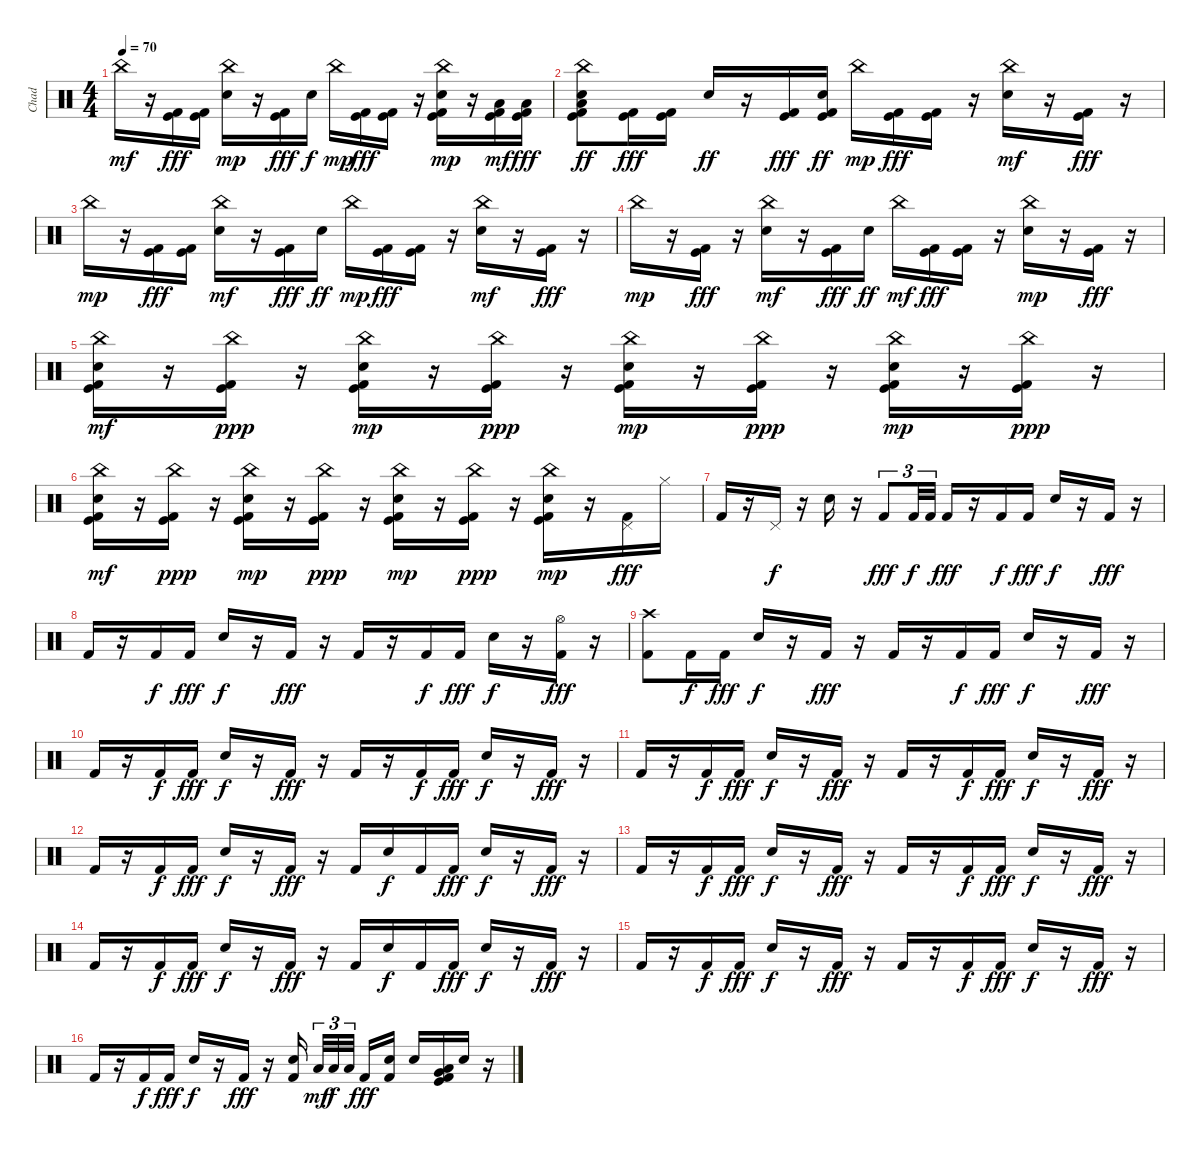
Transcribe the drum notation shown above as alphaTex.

\track ("Chad" "Chad") {instrument percussion}
\staff {score}
\articulation defaults
\ts (4 4)
\tempo 70
\clef neutral
\ks c "China (hit)".16{dy mf}
r.16 ("Kick (hit)" "Kick (hit) 2").16{dy fff} ("Kick (hit)" "Kick (hit) 2").16 ("Snare (hit) 2" "China (hit)").16{dy mp} r.16 ("Kick (hit)" "Kick (hit) 2").16{dy fff} "Snare (hit) 2".16{dy f} "China (hit)".16{dy mp} ("Kick (hit)" "Kick (hit) 2").16{dy fff} ("Kick (hit)" "Kick (hit) 2").16 r.16 ("Kick (hit)" "Kick (hit) 2" "Snare (hit) 2" "China (hit)").16{dy mp} r.16 ("Kick (hit)" "Kick (hit) 2" "Low Floor Tom (hit)").16{dy mf} ("Kick (hit)" "Kick (hit) 2" "Low Floor Tom (hit)").16{dy fff} |
("Kick (hit)" "Kick (hit) 2" "Snare (hit) 2" "Low Floor Tom (hit)" "China (hit)").8{dy ff} ("Kick (hit)" "Kick (hit) 2").16{dy fff} ("Kick (hit)" "Kick (hit) 2").16 "Snare (hit) 2".16{dy ff} r.16 ("Kick (hit)" "Kick (hit) 2").16{dy fff} ("Kick (hit)" "Kick (hit) 2" "Snare (hit) 2").16{dy ff} "China (hit)".16{dy mp} ("Kick (hit)" "Kick (hit) 2").16{dy fff} ("Kick (hit)" "Kick (hit) 2").16 r.16 ("Snare (hit) 2" "China (hit)").16{dy mf} r.16 ("Kick (hit)" "Kick (hit) 2").16{dy fff} r.16 |
"China (hit)".16{dy mp} r.16 ("Kick (hit)" "Kick (hit) 2").16{dy fff} ("Kick (hit)" "Kick (hit) 2").16 ("Snare (hit) 2" "China (hit)").16{dy mf} r.16 ("Kick (hit)" "Kick (hit) 2").16{dy fff} "Snare (hit) 2".16{dy ff} "China (hit)".16{dy mp} ("Kick (hit)" "Kick (hit) 2").16{dy fff} ("Kick (hit)" "Kick (hit) 2").16 r.16 ("Snare (hit) 2" "China (hit)").16{dy mf} r.16 ("Kick (hit)" "Kick (hit) 2").16{dy fff} r.16 |
"China (hit)".16{dy mp} r.16 ("Kick (hit)" "Kick (hit) 2").16{dy fff} r.16 ("Snare (hit) 2" "China (hit)").16{dy mf} r.16 ("Kick (hit)" "Kick (hit) 2").16{dy fff} "Snare (hit) 2".16{dy ff} "China (hit)".16{dy mf} ("Kick (hit)" "Kick (hit) 2").16{dy fff} ("Kick (hit)" "Kick (hit) 2").16 r.16 ("Snare (hit) 2" "China (hit)").16{dy mp} r.16 ("Kick (hit)" "Kick (hit) 2").16{dy fff} r.16 |
("Kick (hit)" "Kick (hit) 2" "Snare (hit) 2" "China (hit)").16{dy mf} r.16 ("Kick (hit)" "Kick (hit) 2" "China (hit)").16{dy ppp} r.16 ("Kick (hit)" "Kick (hit) 2" "Snare (hit) 2" "China (hit)").16{dy mp} r.16 ("Kick (hit)" "Kick (hit) 2" "China (hit)").16{dy ppp} r.16 ("Kick (hit)" "Kick (hit) 2" "Snare (hit) 2" "China (hit)").16{dy mp} r.16 ("Kick (hit)" "Kick (hit) 2" "China (hit)").16{dy ppp} r.16 ("Kick (hit)" "Kick (hit) 2" "Snare (hit) 2" "China (hit)").16{dy mp} r.16 ("Kick (hit)" "Kick (hit) 2" "China (hit)").16{dy ppp} r.16 |
("Kick (hit)" "Kick (hit) 2" "Snare (hit) 2" "China (hit)").16{dy mf} r.16 ("Kick (hit)" "Kick (hit) 2" "China (hit)").16{dy ppp} r.16 ("Kick (hit)" "Kick (hit) 2" "Snare (hit) 2" "China (hit)").16{dy mp} r.16 ("Kick (hit)" "Kick (hit) 2" "China (hit)").16{dy ppp} r.16 ("Kick (hit)" "Kick (hit) 2" "Snare (hit) 2" "China (hit)").16{dy mp} r.16 ("Kick (hit)" "Kick (hit) 2" "China (hit)").16{dy ppp} r.16 ("Kick (hit)" "Kick (hit) 2" "Snare (hit) 2" "China (hit)").16{dy mp} r.16 ("Kick (hit) 2" "Pedal Hi-Hat (hit)").16{dy fff} "Hi-Hat (closed)".16 |
"Kick (hit) 2".16 r.16 "Pedal Hi-Hat (hit)".16{dy f} r.16 "Snare (hit) 2".16 r.16 "Kick (hit) 2".8{tu (3 2) dy fff} "Kick (hit) 2".32{tu (3 2) dy f} "Kick (hit) 2".32{tu (3 2)} "Kick (hit) 2".16{dy fff} r.16 "Kick (hit) 2".16{dy f} "Kick (hit) 2".16{dy fff} "Snare (hit) 2".16{dy f} r.16 "Kick (hit) 2".16{dy fff} r.16 |
"Kick (hit) 2".16 r.16 "Kick (hit) 2".16{dy f} "Kick (hit) 2".16{dy fff} "Snare (hit) 2".16{dy f} r.16 "Kick (hit) 2".16{dy fff} r.16 "Kick (hit) 2".16 r.16 "Kick (hit) 2".16{dy f} "Kick (hit) 2".16{dy fff} "Snare (hit) 2".16{dy f} r.16 ("Kick (hit) 2" "Hi-Hat (open)").16{dy fff} r.16 |
("Kick (hit) 2" "Crash high (hit)").8 "Kick (hit) 2".16{dy f} "Kick (hit) 2".16{dy fff} "Snare (hit) 2".16{dy f} r.16 "Kick (hit) 2".16{dy fff} r.16 "Kick (hit) 2".16 r.16 "Kick (hit) 2".16{dy f} "Kick (hit) 2".16{dy fff} "Snare (hit) 2".16{dy f} r.16 "Kick (hit) 2".16{dy fff} r.16 |
"Kick (hit) 2".16 r.16 "Kick (hit) 2".16{dy f} "Kick (hit) 2".16{dy fff} "Snare (hit) 2".16{dy f} r.16 "Kick (hit) 2".16{dy fff} r.16 "Kick (hit) 2".16 r.16 "Kick (hit) 2".16{dy f} "Kick (hit) 2".16{dy fff} "Snare (hit) 2".16{dy f} r.16 "Kick (hit) 2".16{dy fff} r.16 |
"Kick (hit) 2".16 r.16 "Kick (hit) 2".16{dy f} "Kick (hit) 2".16{dy fff} "Snare (hit) 2".16{dy f} r.16 "Kick (hit) 2".16{dy fff} r.16 "Kick (hit) 2".16 r.16 "Kick (hit) 2".16{dy f} "Kick (hit) 2".16{dy fff} "Snare (hit) 2".16{dy f} r.16 "Kick (hit) 2".16{dy fff} r.16 |
"Kick (hit) 2".16 r.16 "Kick (hit) 2".16{dy f} "Kick (hit) 2".16{dy fff} "Snare (hit) 2".16{dy f} r.16 "Kick (hit) 2".16{dy fff} r.16 "Kick (hit) 2".16 "Snare (hit) 2".16{dy f} "Kick (hit) 2".16 "Kick (hit) 2".16{dy fff} "Snare (hit) 2".16{dy f} r.16 "Kick (hit) 2".16{dy fff} r.16 |
"Kick (hit) 2".16 r.16 "Kick (hit) 2".16{dy f} "Kick (hit) 2".16{dy fff} "Snare (hit) 2".16{dy f} r.16 "Kick (hit) 2".16{dy fff} r.16 "Kick (hit) 2".16 r.16 "Kick (hit) 2".16{dy f} "Kick (hit) 2".16{dy fff} "Snare (hit) 2".16{dy f} r.16 "Kick (hit) 2".16{dy fff} r.16 |
"Kick (hit) 2".16 r.16 "Kick (hit) 2".16{dy f} "Kick (hit) 2".16{dy fff} "Snare (hit) 2".16{dy f} r.16 "Kick (hit) 2".16{dy fff} r.16 "Kick (hit) 2".16 "Snare (hit) 2".16{dy f} "Kick (hit) 2".16 "Kick (hit) 2".16{dy fff} "Snare (hit) 2".16{dy f} r.16 "Kick (hit) 2".16{dy fff} r.16 |
"Kick (hit) 2".16 r.16 "Kick (hit) 2".16{dy f} "Kick (hit) 2".16{dy fff} "Snare (hit) 2".16{dy f} r.16 "Kick (hit) 2".16{dy fff} r.16 "Kick (hit) 2".16 r.16 "Kick (hit) 2".16{dy f} "Kick (hit) 2".16{dy fff} "Snare (hit) 2".16{dy f} r.16 "Kick (hit) 2".16{dy fff} r.16 |
"Kick (hit) 2".16 r.16 "Kick (hit) 2".16{dy f} "Kick (hit) 2".16{dy fff} "Snare (hit) 2".16{dy f} r.16 "Kick (hit) 2".16{dy fff} r.16 ("Snare (hit) 2" "Kick (hit) 2").16{beam splitsecondary} "Low Floor Tom (hit)".32{tu (3 2) dy mf} "Low Floor Tom (hit)".32{tu (3 2) dy f} "Low Floor Tom (hit)".32{tu (3 2) beam splitsecondary} "Kick (hit) 2".16{dy fff} ("Snare (hit) 2" "Kick (hit) 2").16 "Snare (hit) 2".16 ("Kick (hit)" "Kick (hit) 2" "Low Floor Tom (hit)" "Very Low Tom (hit)").16 "Snare (hit) 2".16 r.16
